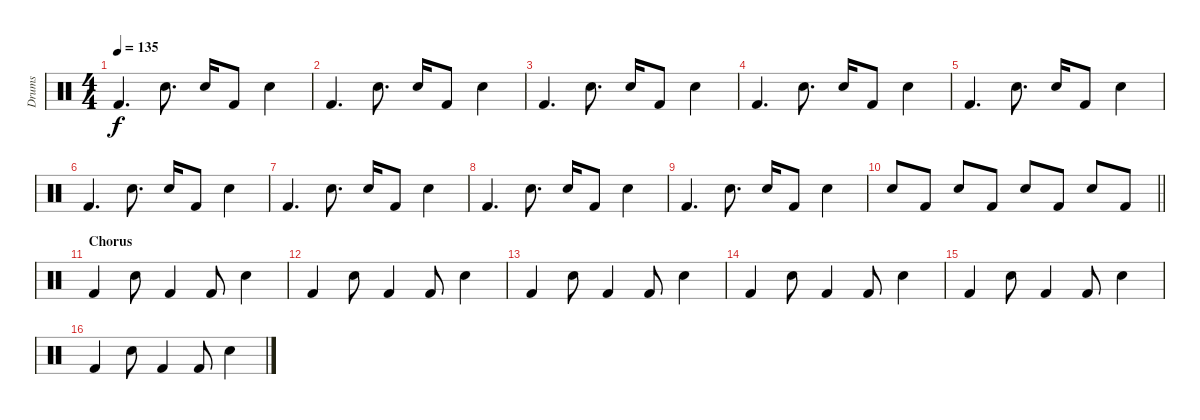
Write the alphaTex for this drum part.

\track ("Drums" "Drums") {instrument percussion}
\staff {score}
\articulation defaults
\ts (4 4)
\tempo 135
\clef neutral
\ks c "Kick (hit) 2".4{d dy f} "Electric Snare (hit)".8{d} "Electric Snare (hit)".16 "Kick (hit) 2".8 "Electric Snare (hit)".4
|
"Kick (hit) 2".4{d} "Electric Snare (hit)".8{d} "Electric Snare (hit)".16 "Kick (hit) 2".8 "Electric Snare (hit)".4 |
"Kick (hit) 2".4{d} "Electric Snare (hit)".8{d} "Electric Snare (hit)".16 "Kick (hit) 2".8 "Electric Snare (hit)".4 |
"Kick (hit) 2".4{d} "Electric Snare (hit)".8{d} "Electric Snare (hit)".16 "Kick (hit) 2".8 "Electric Snare (hit)".4 |
"Kick (hit) 2".4{d} "Electric Snare (hit)".8{d} "Electric Snare (hit)".16 "Kick (hit) 2".8 "Electric Snare (hit)".4 |
"Kick (hit) 2".4{d} "Electric Snare (hit)".8{d} "Electric Snare (hit)".16 "Kick (hit) 2".8 "Electric Snare (hit)".4 |
"Kick (hit) 2".4{d} "Electric Snare (hit)".8{d} "Electric Snare (hit)".16 "Kick (hit) 2".8 "Electric Snare (hit)".4 |
"Kick (hit) 2".4{d} "Electric Snare (hit)".8{d} "Electric Snare (hit)".16 "Kick (hit) 2".8 "Electric Snare (hit)".4 |
"Kick (hit) 2".4{d} "Electric Snare (hit)".8{d} "Electric Snare (hit)".16 "Kick (hit) 2".8 "Electric Snare (hit)".4 |
\barLineRight lightlight "Electric Snare (hit)".8 "Kick (hit) 2".8 "Electric Snare (hit)".8 "Kick (hit) 2".8 "Electric Snare (hit)".8 "Kick (hit) 2".8 "Electric Snare (hit)".8 "Kick (hit) 2".8
|
\section ("" "Chorus")
"Kick (hit) 2".4 "Electric Snare (hit)".8 "Kick (hit) 2".4 "Kick (hit) 2".8 "Electric Snare (hit)".4 |
"Kick (hit) 2".4 "Electric Snare (hit)".8 "Kick (hit) 2".4 "Kick (hit) 2".8 "Electric Snare (hit)".4 |
"Kick (hit) 2".4 "Electric Snare (hit)".8 "Kick (hit) 2".4 "Kick (hit) 2".8 "Electric Snare (hit)".4 |
"Kick (hit) 2".4 "Electric Snare (hit)".8 "Kick (hit) 2".4 "Kick (hit) 2".8 "Electric Snare (hit)".4 |
"Kick (hit) 2".4 "Electric Snare (hit)".8 "Kick (hit) 2".4 "Kick (hit) 2".8 "Electric Snare (hit)".4 |
"Kick (hit) 2".4 "Electric Snare (hit)".8 "Kick (hit) 2".4 "Kick (hit) 2".8 "Electric Snare (hit)".4
